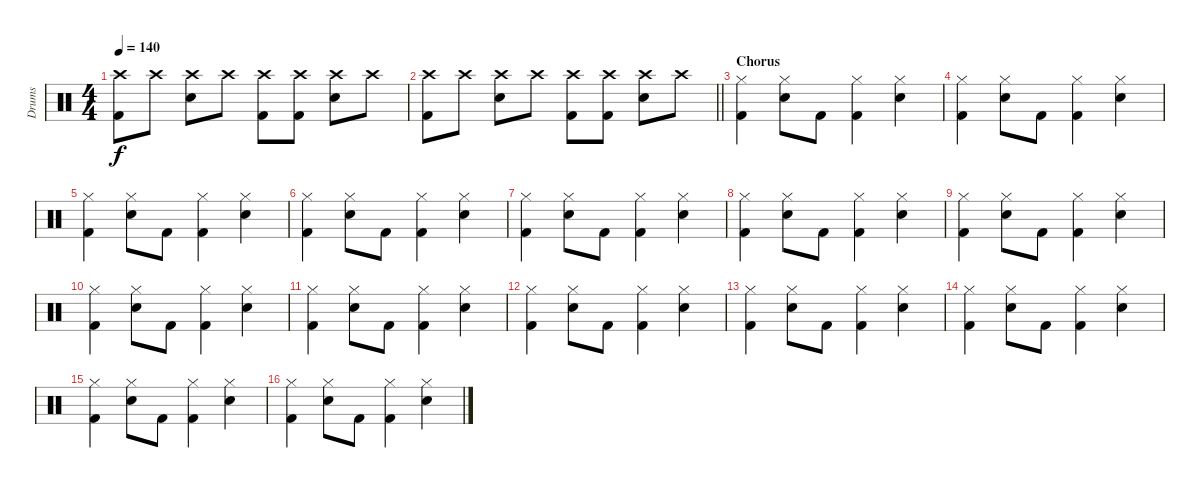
\track ("Drums" "Drums") {instrument percussion}
\staff {score}
\articulation defaults
\ts (4 4)
\tempo 140
\clef neutral
\ks c
("Crash high (hit)" "Kick (hit) 2").8{dy f} "Crash high (hit)".8 ("Crash high (hit)" "Electric Snare (hit)").8 "Crash high (hit)".8 ("Crash high (hit)" "Kick (hit) 2").8 ("Crash high (hit)" "Kick (hit) 2").8 ("Crash high (hit)" "Electric Snare (hit)").8 "Crash high (hit)".8 |
\barLineRight lightlight
("Crash high (hit)" "Kick (hit) 2").8 "Crash high (hit)".8 ("Crash high (hit)" "Electric Snare (hit)").8 "Crash high (hit)".8 ("Crash high (hit)" "Kick (hit) 2").8 ("Crash high (hit)" "Kick (hit) 2").8 ("Crash high (hit)" "Electric Snare (hit)").8 "Crash high (hit)".8 |
\section ("" "Chorus")
("Hi-Hat (closed)" "Kick (hit) 2").4 ("Hi-Hat (closed)" "Electric Snare (hit)").8 "Kick (hit) 2".8 ("Hi-Hat (closed)" "Kick (hit) 2").4 ("Hi-Hat (closed)" "Electric Snare (hit)").4 |
("Hi-Hat (closed)" "Kick (hit) 2").4 ("Hi-Hat (closed)" "Electric Snare (hit)").8 "Kick (hit) 2".8 ("Hi-Hat (closed)" "Kick (hit) 2").4 ("Hi-Hat (closed)" "Electric Snare (hit)").4 |
("Hi-Hat (closed)" "Kick (hit) 2").4 ("Hi-Hat (closed)" "Electric Snare (hit)").8 "Kick (hit) 2".8 ("Hi-Hat (closed)" "Kick (hit) 2").4 ("Hi-Hat (closed)" "Electric Snare (hit)").4 |
("Hi-Hat (closed)" "Kick (hit) 2").4 ("Hi-Hat (closed)" "Electric Snare (hit)").8 "Kick (hit) 2".8 ("Hi-Hat (closed)" "Kick (hit) 2").4 ("Hi-Hat (closed)" "Electric Snare (hit)").4 |
("Hi-Hat (closed)" "Kick (hit) 2").4 ("Hi-Hat (closed)" "Electric Snare (hit)").8 "Kick (hit) 2".8 ("Hi-Hat (closed)" "Kick (hit) 2").4 ("Hi-Hat (closed)" "Electric Snare (hit)").4 |
("Hi-Hat (closed)" "Kick (hit) 2").4 ("Hi-Hat (closed)" "Electric Snare (hit)").8 "Kick (hit) 2".8 ("Hi-Hat (closed)" "Kick (hit) 2").4 ("Hi-Hat (closed)" "Electric Snare (hit)").4 |
("Hi-Hat (closed)" "Kick (hit) 2").4 ("Hi-Hat (closed)" "Electric Snare (hit)").8 "Kick (hit) 2".8 ("Hi-Hat (closed)" "Kick (hit) 2").4 ("Hi-Hat (closed)" "Electric Snare (hit)").4 |
("Hi-Hat (closed)" "Kick (hit) 2").4 ("Hi-Hat (closed)" "Electric Snare (hit)").8 "Kick (hit) 2".8 ("Hi-Hat (closed)" "Kick (hit) 2").4 ("Hi-Hat (closed)" "Electric Snare (hit)").4 |
("Hi-Hat (closed)" "Kick (hit) 2").4 ("Hi-Hat (closed)" "Electric Snare (hit)").8 "Kick (hit) 2".8 ("Hi-Hat (closed)" "Kick (hit) 2").4 ("Hi-Hat (closed)" "Electric Snare (hit)").4 |
("Hi-Hat (closed)" "Kick (hit) 2").4 ("Hi-Hat (closed)" "Electric Snare (hit)").8 "Kick (hit) 2".8 ("Hi-Hat (closed)" "Kick (hit) 2").4 ("Hi-Hat (closed)" "Electric Snare (hit)").4 |
("Hi-Hat (closed)" "Kick (hit) 2").4 ("Hi-Hat (closed)" "Electric Snare (hit)").8 "Kick (hit) 2".8 ("Hi-Hat (closed)" "Kick (hit) 2").4 ("Hi-Hat (closed)" "Electric Snare (hit)").4 |
("Hi-Hat (closed)" "Kick (hit) 2").4 ("Hi-Hat (closed)" "Electric Snare (hit)").8 "Kick (hit) 2".8 ("Hi-Hat (closed)" "Kick (hit) 2").4 ("Hi-Hat (closed)" "Electric Snare (hit)").4 |
("Hi-Hat (closed)" "Kick (hit) 2").4 ("Hi-Hat (closed)" "Electric Snare (hit)").8 "Kick (hit) 2".8 ("Hi-Hat (closed)" "Kick (hit) 2").4 ("Hi-Hat (closed)" "Electric Snare (hit)").4 |
("Hi-Hat (closed)" "Kick (hit) 2").4 ("Hi-Hat (closed)" "Electric Snare (hit)").8 "Kick (hit) 2".8 ("Hi-Hat (closed)" "Kick (hit) 2").4 ("Hi-Hat (closed)" "Electric Snare (hit)").4
